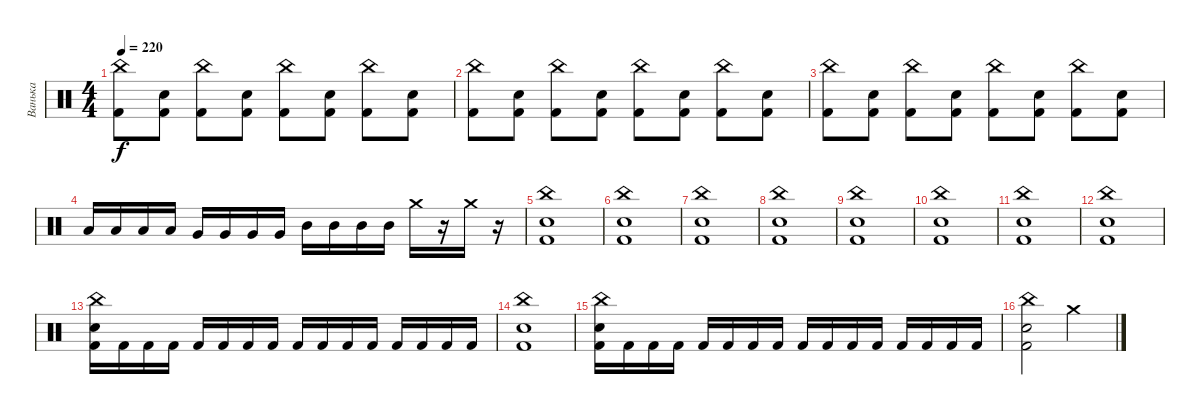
\track ("Ванька" "Ванька") {instrument percussion}
\staff {score}
\articulation defaults
\ts (4 4)
\tempo 220
\clef neutral
\ks c
("China (hit)" "Kick (hit) 2").8{dy f} ("Snare (hit) 2" "Kick (hit) 2").8 ("China (hit)" "Kick (hit) 2").8 ("Snare (hit) 2" "Kick (hit) 2").8 ("China (hit)" "Kick (hit) 2").8 ("Snare (hit) 2" "Kick (hit) 2").8 ("China (hit)" "Kick (hit) 2").8 ("Snare (hit) 2" "Kick (hit) 2").8 |
("China (hit)" "Kick (hit) 2").8 ("Snare (hit) 2" "Kick (hit) 2").8 ("China (hit)" "Kick (hit) 2").8 ("Snare (hit) 2" "Kick (hit) 2").8 ("China (hit)" "Kick (hit) 2").8 ("Snare (hit) 2" "Kick (hit) 2").8 ("China (hit)" "Kick (hit) 2").8 ("Snare (hit) 2" "Kick (hit) 2").8 |
("China (hit)" "Kick (hit) 2").8 ("Snare (hit) 2" "Kick (hit) 2").8 ("China (hit)" "Kick (hit) 2").8 ("Snare (hit) 2" "Kick (hit) 2").8 ("China (hit)" "Kick (hit) 2").8 ("Snare (hit) 2" "Kick (hit) 2").8 ("China (hit)" "Kick (hit) 2").8 ("Snare (hit) 2" "Kick (hit) 2").8 |
"Low Floor Tom (hit)".16 "Low Floor Tom (hit)".16 "Low Floor Tom (hit)".16 "Low Floor Tom (hit)".16 "Very Low Tom (hit)".16 "Very Low Tom (hit)".16 "Very Low Tom (hit)".16 "Very Low Tom (hit)".16 "Mid Tom (hit)".16 "Mid Tom (hit)".16 "Mid Tom (hit)".16 "Mid Tom (hit)".16 "Crash medium (hit)".16 r.16 "Crash medium (hit)".16 r.16 |
("China (hit)" "Snare (hit) 2" "Kick (hit) 2").1 |
("China (hit)" "Snare (hit) 2" "Kick (hit) 2").1 |
("China (hit)" "Snare (hit) 2" "Kick (hit) 2").1 |
("China (hit)" "Snare (hit) 2" "Kick (hit) 2").1 |
("China (hit)" "Snare (hit) 2" "Kick (hit) 2").1 |
("China (hit)" "Snare (hit) 2" "Kick (hit) 2").1 |
("China (hit)" "Snare (hit) 2" "Kick (hit) 2").1 |
("China (hit)" "Snare (hit) 2" "Kick (hit) 2").1 |
("China (hit)" "Snare (hit) 2" "Kick (hit) 2").16 "Kick (hit) 2".16 "Kick (hit) 2".16 "Kick (hit) 2".16 "Kick (hit) 2".16 "Kick (hit) 2".16 "Kick (hit) 2".16 "Kick (hit) 2".16 "Kick (hit) 2".16 "Kick (hit) 2".16 "Kick (hit) 2".16 "Kick (hit) 2".16 "Kick (hit) 2".16 "Kick (hit) 2".16 "Kick (hit) 2".16 "Kick (hit) 2".16 |
("China (hit)" "Snare (hit) 2" "Kick (hit) 2").1 |
("China (hit)" "Snare (hit) 2" "Kick (hit) 2").16 "Kick (hit) 2".16 "Kick (hit) 2".16 "Kick (hit) 2".16 "Kick (hit) 2".16 "Kick (hit) 2".16 "Kick (hit) 2".16 "Kick (hit) 2".16 "Kick (hit) 2".16 "Kick (hit) 2".16 "Kick (hit) 2".16 "Kick (hit) 2".16 "Kick (hit) 2".16 "Kick (hit) 2".16 "Kick (hit) 2".16 "Kick (hit) 2".16 |
("China (hit)" "Snare (hit) 2" "Kick (hit) 2").2 "Crash medium (hit)".2
